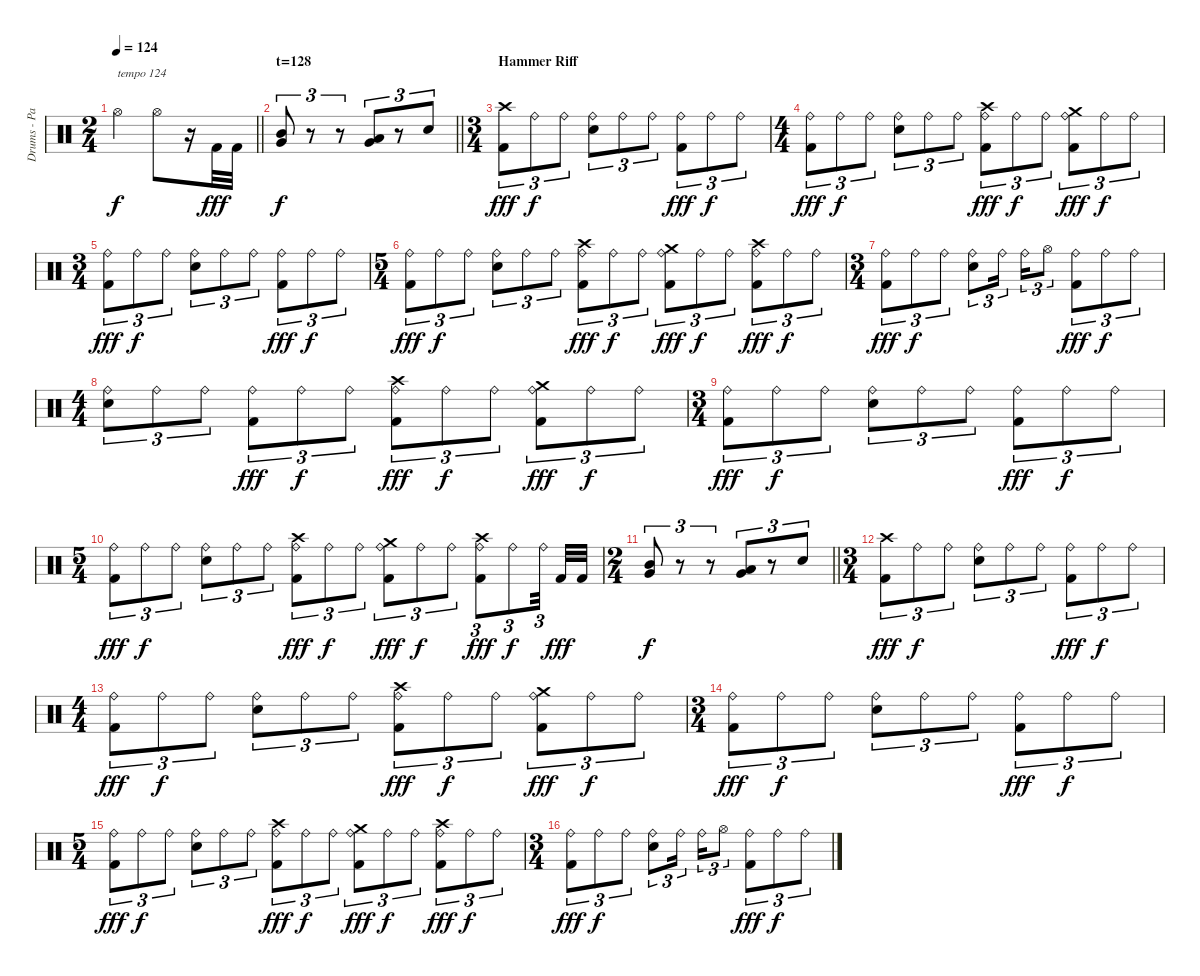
\track ("Drums - Paul Mazurkiewicz" "Drums - Pa") {instrument percussion}
\staff {score}
\articulation defaults
\ts (2 4)
\tempo 124
\clef neutral
\barLineRight lightlight
\ks c "Hi-Hat (open)".4{txt "tempo 124" dy f} "Hi-Hat (open)".8
r.16 "Kick (hit) 2".32{dy fff} "Kick (hit) 2".32 |
\section ("" "t=128")
\barLineRight lightlight
("Mid Tom (hit)" "Very Low Tom (hit)").8{tu (3 2) dy f} r.8{tu (3 2)} r.8{tu (3 2)} ("Low Tom (hit)" "Very Low Tom (hit)").8{tu (3 2)} r.8{tu (3 2)} "Snare (hit) 2".8{tu (3 2)} |
\ts (3 4)
\section ("" "Hammer Riff")
("Crash high (hit)" "Kick (hit) 2").8{tu (3 2) dy fff} "Ride (bell)".8{tu (3 2) dy f} "Ride (bell)".8{tu (3 2)} ("Ride (bell)" "Snare (hit) 2").8{tu (3 2)} "Ride (bell)".8{tu (3 2)} "Ride (bell)".8{tu (3 2)} ("Ride (bell)" "Kick (hit) 2").8{tu (3 2) dy fff} "Ride (bell)".8{tu (3 2) dy f} "Ride (bell)".8{tu (3 2)} |
\ts (4 4)
("Ride (bell)" "Kick (hit) 2").8{tu (3 2) dy fff} "Ride (bell)".8{tu (3 2) dy f} "Ride (bell)".8{tu (3 2)} ("Ride (bell)" "Snare (hit) 2").8{tu (3 2)} "Ride (bell)".8{tu (3 2)} "Ride (bell)".8{tu (3 2)} ("Crash high (hit)" "Ride (bell)" "Kick (hit) 2").8{tu (3 2) dy fff} "Ride (bell)".8{tu (3 2) dy f} "Ride (bell)".8{tu (3 2)} ("Crash medium (hit)" "Ride (bell)" "Kick (hit) 2").8{tu (3 2) dy fff} "Ride (bell)".8{tu (3 2) dy f} "Ride (bell)".8{tu (3 2)} |
\ts (3 4)
("Ride (bell)" "Kick (hit) 2").8{tu (3 2) dy fff} "Ride (bell)".8{tu (3 2) dy f} "Ride (bell)".8{tu (3 2)} ("Ride (bell)" "Snare (hit) 2").8{tu (3 2)} "Ride (bell)".8{tu (3 2)} "Ride (bell)".8{tu (3 2)} ("Ride (bell)" "Kick (hit) 2").8{tu (3 2) dy fff} "Ride (bell)".8{tu (3 2) dy f} "Ride (bell)".8{tu (3 2)} |
\ts (5 4)
("Ride (bell)" "Kick (hit) 2").8{tu (3 2) dy fff} "Ride (bell)".8{tu (3 2) dy f} "Ride (bell)".8{tu (3 2)} ("Ride (bell)" "Snare (hit) 2").8{tu (3 2)} "Ride (bell)".8{tu (3 2)} "Ride (bell)".8{tu (3 2)} ("Crash high (hit)" "Ride (bell)" "Kick (hit) 2").8{tu (3 2) dy fff} "Ride (bell)".8{tu (3 2) dy f} "Ride (bell)".8{tu (3 2)} ("Crash medium (hit)" "Ride (bell)" "Kick (hit) 2").8{tu (3 2) dy fff} "Ride (bell)".8{tu (3 2) dy f} "Ride (bell)".8{tu (3 2)} ("Crash high (hit)" "Ride (bell)" "Kick (hit) 2").8{tu (3 2) dy fff} "Ride (bell)".8{tu (3 2) dy f} "Ride (bell)".8{tu (3 2)} |
\ts (3 4)
("Ride (bell)" "Kick (hit) 2").8{tu (3 2) dy fff} "Ride (bell)".8{tu (3 2) dy f} "Ride (bell)".8{tu (3 2)} ("Ride (bell)" "Snare (hit) 2").8{tu (3 2)} "Ride (bell)".16{tu (3 2) beam splitsecondary} "Ride (bell)".16{tu (3 2)} "Hi-Hat (open)".8{tu (3 2)} ("Ride (bell)" "Kick (hit) 2").8{tu (3 2) dy fff} "Ride (bell)".8{tu (3 2) dy f} "Ride (bell)".8{tu (3 2)} |
\ts (4 4)
("Ride (bell)" "Snare (hit) 2").8{tu (3 2)} "Ride (bell)".8{tu (3 2)} "Ride (bell)".8{tu (3 2)} ("Ride (bell)" "Kick (hit) 2").8{tu (3 2) dy fff} "Ride (bell)".8{tu (3 2) dy f} "Ride (bell)".8{tu (3 2)} ("Crash high (hit)" "Ride (bell)" "Kick (hit) 2").8{tu (3 2) dy fff} "Ride (bell)".8{tu (3 2) dy f} "Ride (bell)".8{tu (3 2)} ("Crash medium (hit)" "Ride (bell)" "Kick (hit) 2").8{tu (3 2) dy fff} "Ride (bell)".8{tu (3 2) dy f} "Ride (bell)".8{tu (3 2)} |
\ts (3 4)
("Ride (bell)" "Kick (hit) 2").8{tu (3 2) dy fff} "Ride (bell)".8{tu (3 2) dy f} "Ride (bell)".8{tu (3 2)} ("Ride (bell)" "Snare (hit) 2").8{tu (3 2)} "Ride (bell)".8{tu (3 2)} "Ride (bell)".8{tu (3 2)} ("Ride (bell)" "Kick (hit) 2").8{tu (3 2) dy fff} "Ride (bell)".8{tu (3 2) dy f} "Ride (bell)".8{tu (3 2)} |
\ts (5 4)
("Ride (bell)" "Kick (hit) 2").8{tu (3 2) dy fff} "Ride (bell)".8{tu (3 2) dy f} "Ride (bell)".8{tu (3 2)} ("Ride (bell)" "Snare (hit) 2").8{tu (3 2)} "Ride (bell)".8{tu (3 2)} "Ride (bell)".8{tu (3 2)} ("Crash high (hit)" "Ride (bell)" "Kick (hit) 2").8{tu (3 2) dy fff} "Ride (bell)".8{tu (3 2) dy f} "Ride (bell)".8{tu (3 2)} ("Crash medium (hit)" "Ride (bell)" "Kick (hit) 2").8{tu (3 2) dy fff} "Ride (bell)".8{tu (3 2) dy f} "Ride (bell)".8{tu (3 2)} ("Crash high (hit)" "Ride (bell)" "Kick (hit) 2").8{tu (3 2) dy fff} "Ride (bell)".8{tu (3 2) dy f} "Ride (bell)".32{tu (3 2) beam splitsecondary} "Kick (hit) 2".32{dy fff} "Kick (hit) 2".32 |
\ts (2 4)
\barLineRight lightlight
("Mid Tom (hit)" "Very Low Tom (hit)").8{tu (3 2) dy f} r.8{tu (3 2)} r.8{tu (3 2)} ("Low Tom (hit)" "Very Low Tom (hit)").8{tu (3 2)} r.8{tu (3 2)} "Snare (hit) 2".8{tu (3 2)} |
\ts (3 4)
("Crash high (hit)" "Kick (hit) 2").8{tu (3 2) dy fff} "Ride (bell)".8{tu (3 2) dy f} "Ride (bell)".8{tu (3 2)} ("Ride (bell)" "Snare (hit) 2").8{tu (3 2)} "Ride (bell)".8{tu (3 2)} "Ride (bell)".8{tu (3 2)} ("Ride (bell)" "Kick (hit) 2").8{tu (3 2) dy fff} "Ride (bell)".8{tu (3 2) dy f} "Ride (bell)".8{tu (3 2)} |
\ts (4 4)
("Ride (bell)" "Kick (hit) 2").8{tu (3 2) dy fff} "Ride (bell)".8{tu (3 2) dy f} "Ride (bell)".8{tu (3 2)} ("Ride (bell)" "Snare (hit) 2").8{tu (3 2)} "Ride (bell)".8{tu (3 2)} "Ride (bell)".8{tu (3 2)} ("Crash high (hit)" "Ride (bell)" "Kick (hit) 2").8{tu (3 2) dy fff} "Ride (bell)".8{tu (3 2) dy f} "Ride (bell)".8{tu (3 2)} ("Crash medium (hit)" "Ride (bell)" "Kick (hit) 2").8{tu (3 2) dy fff} "Ride (bell)".8{tu (3 2) dy f} "Ride (bell)".8{tu (3 2)} |
\ts (3 4)
("Ride (bell)" "Kick (hit) 2").8{tu (3 2) dy fff} "Ride (bell)".8{tu (3 2) dy f} "Ride (bell)".8{tu (3 2)} ("Ride (bell)" "Snare (hit) 2").8{tu (3 2)} "Ride (bell)".8{tu (3 2)} "Ride (bell)".8{tu (3 2)} ("Ride (bell)" "Kick (hit) 2").8{tu (3 2) dy fff} "Ride (bell)".8{tu (3 2) dy f} "Ride (bell)".8{tu (3 2)} |
\ts (5 4)
("Ride (bell)" "Kick (hit) 2").8{tu (3 2) dy fff} "Ride (bell)".8{tu (3 2) dy f} "Ride (bell)".8{tu (3 2)} ("Ride (bell)" "Snare (hit) 2").8{tu (3 2)} "Ride (bell)".8{tu (3 2)} "Ride (bell)".8{tu (3 2)} ("Crash high (hit)" "Ride (bell)" "Kick (hit) 2").8{tu (3 2) dy fff} "Ride (bell)".8{tu (3 2) dy f} "Ride (bell)".8{tu (3 2)} ("Crash medium (hit)" "Ride (bell)" "Kick (hit) 2").8{tu (3 2) dy fff} "Ride (bell)".8{tu (3 2) dy f} "Ride (bell)".8{tu (3 2)} ("Crash high (hit)" "Ride (bell)" "Kick (hit) 2").8{tu (3 2) dy fff} "Ride (bell)".8{tu (3 2) dy f} "Ride (bell)".8{tu (3 2)} |
\ts (3 4)
("Ride (bell)" "Kick (hit) 2").8{tu (3 2) dy fff} "Ride (bell)".8{tu (3 2) dy f} "Ride (bell)".8{tu (3 2)} ("Ride (bell)" "Snare (hit) 2").8{tu (3 2)} "Ride (bell)".16{tu (3 2) beam splitsecondary} "Ride (bell)".16{tu (3 2)} "Hi-Hat (open)".8{tu (3 2)} ("Ride (bell)" "Kick (hit) 2").8{tu (3 2) dy fff} "Ride (bell)".8{tu (3 2) dy f} "Ride (bell)".8{tu (3 2)}
